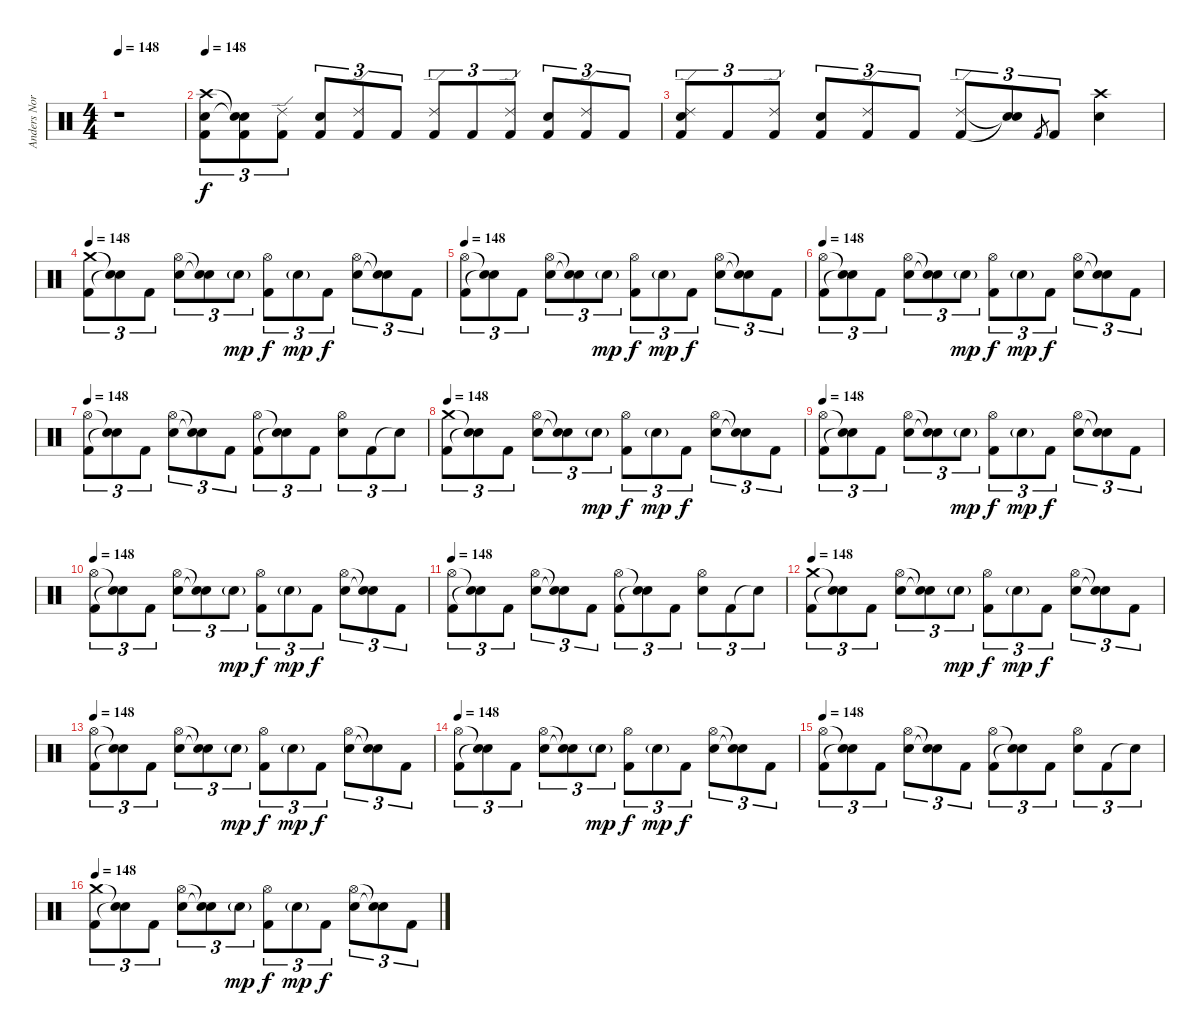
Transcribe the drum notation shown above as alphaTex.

\track ("Anders Nordin" "Anders Nor") {instrument percussion}
\staff {score}
\articulation defaults
\ts (4 4)
\tempo 148
\clef neutral
\ks c
r.1{dy mp} |
\tempo 148
("Kick (hit) 2" "Electric Snare (hit)" "Crash high (hit)").8{tu (3 2) dy f} ("Kick (hit) 2" "Snare (hit)"{t} "Snare (hit)"{t}).8{tu (3 2)} ("Kick (hit) 2" "Ride (edge) 2").8{tu (3 2)} ("Kick (hit) 2" "Electric Snare (hit)").8{tu (3 2)} ("Kick (hit) 2" "Ride (edge) 2").8{tu (3 2)} "Kick (hit) 2".8{tu (3 2)} ("Kick (hit) 2" "Ride (edge) 2").8{tu (3 2)} "Kick (hit) 2".8{tu (3 2)} ("Kick (hit) 2" "Ride (edge) 2").8{tu (3 2)} ("Kick (hit) 2" "Electric Snare (hit)").8{tu (3 2)} ("Kick (hit) 2" "Ride (edge) 2").8{tu (3 2)} "Kick (hit) 2".8{tu (3 2)} |
("Kick (hit) 2" "Electric Snare (hit)" "Ride (edge) 2").8{tu (3 2)} "Kick (hit) 2".8{tu (3 2)} ("Kick (hit) 2" "Ride (edge) 2").8{tu (3 2)} ("Kick (hit) 2" "Electric Snare (hit)").8{tu (3 2)} ("Kick (hit) 2" "Ride (edge) 2").8{tu (3 2)} "Kick (hit) 2".8{tu (3 2)} ("Kick (hit) 2" "Ride (edge) 2").8{tu (3 2)} ("Snare (hit)"{t} "Snare (hit)"{t}).8{tu (3 2)} "Kick (hit) 2".8{gr} "Kick (hit) 2".8{tu (3 2)} ("Electric Snare (hit)" "Crash high (hit)").4 |
\tempo 148
("Kick (hit) 2" "Crash medium (hit)").8{tu (3 2)} ("Snare (hit)"{t} "Snare (hit)"{t}).8{tu (3 2)} "Kick (hit) 2".8{tu (3 2)} ("Electric Snare (hit)" "Hi-Hat (open)").8{tu (3 2)} ("Snare (hit)"{t} "Snare (hit)"{t}).8{tu (3 2)} "Electric Snare (hit)"{g}.8{tu (3 2) dy mp} ("Kick (hit) 2" "Hi-Hat (open)").8{tu (3 2) dy f} "Electric Snare (hit)"{g}.8{tu (3 2) dy mp} "Kick (hit) 2".8{tu (3 2) dy f} ("Electric Snare (hit)" "Hi-Hat (open)").8{tu (3 2)} ("Snare (hit)"{t} "Snare (hit)"{t}).8{tu (3 2)} "Kick (hit) 2".8{tu (3 2)} |
\tempo 148
("Kick (hit) 2" "Hi-Hat (open)").8{tu (3 2)} ("Snare (hit)"{t} "Snare (hit)"{t}).8{tu (3 2)} "Kick (hit) 2".8{tu (3 2)} ("Electric Snare (hit)" "Hi-Hat (open)").8{tu (3 2)} ("Snare (hit)"{t} "Snare (hit)"{t}).8{tu (3 2)} "Electric Snare (hit)"{g}.8{tu (3 2) dy mp} ("Kick (hit) 2" "Hi-Hat (open)").8{tu (3 2) dy f} "Electric Snare (hit)"{g}.8{tu (3 2) dy mp} "Kick (hit) 2".8{tu (3 2) dy f} ("Electric Snare (hit)" "Hi-Hat (open)").8{tu (3 2)} ("Snare (hit)"{t} "Snare (hit)"{t}).8{tu (3 2)} "Kick (hit) 2".8{tu (3 2)} |
\tempo 148
("Kick (hit) 2" "Hi-Hat (open)").8{tu (3 2)} ("Snare (hit)"{t} "Snare (hit)"{t}).8{tu (3 2)} "Kick (hit) 2".8{tu (3 2)} ("Electric Snare (hit)" "Hi-Hat (open)").8{tu (3 2)} ("Snare (hit)"{t} "Snare (hit)"{t}).8{tu (3 2)} "Electric Snare (hit)"{g}.8{tu (3 2) dy mp} ("Kick (hit) 2" "Hi-Hat (open)").8{tu (3 2) dy f} "Electric Snare (hit)"{g}.8{tu (3 2) dy mp} "Kick (hit) 2".8{tu (3 2) dy f} ("Electric Snare (hit)" "Hi-Hat (open)").8{tu (3 2)} ("Snare (hit)"{t} "Snare (hit)"{t}).8{tu (3 2)} "Kick (hit) 2".8{tu (3 2)} |
\tempo 148
("Kick (hit) 2" "Hi-Hat (open)").8{tu (3 2)} ("Snare (hit)"{t} "Snare (hit)"{t}).8{tu (3 2)} "Kick (hit) 2".8{tu (3 2)} ("Electric Snare (hit)" "Hi-Hat (open)").8{tu (3 2)} ("Snare (hit)"{t} "Snare (hit)"{t}).8{tu (3 2)} "Kick (hit) 2".8{tu (3 2)} ("Kick (hit) 2" "Hi-Hat (open)").8{tu (3 2)} ("Snare (hit)"{t} "Snare (hit)"{t}).8{tu (3 2)} "Kick (hit) 2".8{tu (3 2)} ("Electric Snare (hit)" "Hi-Hat (open)").8{tu (3 2)} "Kick (hit) 2".8{tu (3 2)} "Snare (hit)"{t}.8{tu (3 2)} |
\tempo 148
("Kick (hit) 2" "Crash medium (hit)").8{tu (3 2)} ("Snare (hit)"{t} "Snare (hit)"{t}).8{tu (3 2)} "Kick (hit) 2".8{tu (3 2)} ("Electric Snare (hit)" "Hi-Hat (open)").8{tu (3 2)} ("Snare (hit)"{t} "Snare (hit)"{t}).8{tu (3 2)} "Electric Snare (hit)"{g}.8{tu (3 2) dy mp} ("Kick (hit) 2" "Hi-Hat (open)").8{tu (3 2) dy f} "Electric Snare (hit)"{g}.8{tu (3 2) dy mp} "Kick (hit) 2".8{tu (3 2) dy f} ("Electric Snare (hit)" "Hi-Hat (open)").8{tu (3 2)} ("Snare (hit)"{t} "Snare (hit)"{t}).8{tu (3 2)} "Kick (hit) 2".8{tu (3 2)} |
\tempo 148
("Kick (hit) 2" "Hi-Hat (open)").8{tu (3 2)} ("Snare (hit)"{t} "Snare (hit)"{t}).8{tu (3 2)} "Kick (hit) 2".8{tu (3 2)} ("Electric Snare (hit)" "Hi-Hat (open)").8{tu (3 2)} ("Snare (hit)"{t} "Snare (hit)"{t}).8{tu (3 2)} "Electric Snare (hit)"{g}.8{tu (3 2) dy mp} ("Kick (hit) 2" "Hi-Hat (open)").8{tu (3 2) dy f} "Electric Snare (hit)"{g}.8{tu (3 2) dy mp} "Kick (hit) 2".8{tu (3 2) dy f} ("Electric Snare (hit)" "Hi-Hat (open)").8{tu (3 2)} ("Snare (hit)"{t} "Snare (hit)"{t}).8{tu (3 2)} "Kick (hit) 2".8{tu (3 2)} |
\tempo 148
("Kick (hit) 2" "Hi-Hat (open)").8{tu (3 2)} ("Snare (hit)"{t} "Snare (hit)"{t}).8{tu (3 2)} "Kick (hit) 2".8{tu (3 2)} ("Electric Snare (hit)" "Hi-Hat (open)").8{tu (3 2)} ("Snare (hit)"{t} "Snare (hit)"{t}).8{tu (3 2)} "Electric Snare (hit)"{g}.8{tu (3 2) dy mp} ("Kick (hit) 2" "Hi-Hat (open)").8{tu (3 2) dy f} "Electric Snare (hit)"{g}.8{tu (3 2) dy mp} "Kick (hit) 2".8{tu (3 2) dy f} ("Electric Snare (hit)" "Hi-Hat (open)").8{tu (3 2)} ("Snare (hit)"{t} "Snare (hit)"{t}).8{tu (3 2)} "Kick (hit) 2".8{tu (3 2)} |
\tempo 148
("Kick (hit) 2" "Hi-Hat (open)").8{tu (3 2)} ("Snare (hit)"{t} "Snare (hit)"{t}).8{tu (3 2)} "Kick (hit) 2".8{tu (3 2)} ("Electric Snare (hit)" "Hi-Hat (open)").8{tu (3 2)} ("Snare (hit)"{t} "Snare (hit)"{t}).8{tu (3 2)} "Kick (hit) 2".8{tu (3 2)} ("Kick (hit) 2" "Hi-Hat (open)").8{tu (3 2)} ("Snare (hit)"{t} "Snare (hit)"{t}).8{tu (3 2)} "Kick (hit) 2".8{tu (3 2)} ("Electric Snare (hit)" "Hi-Hat (open)").8{tu (3 2)} "Kick (hit) 2".8{tu (3 2)} "Snare (hit)"{t}.8{tu (3 2)} |
\tempo 148
("Kick (hit) 2" "Crash medium (hit)").8{tu (3 2)} ("Snare (hit)"{t} "Snare (hit)"{t}).8{tu (3 2)} "Kick (hit) 2".8{tu (3 2)} ("Electric Snare (hit)" "Hi-Hat (open)").8{tu (3 2)} ("Snare (hit)"{t} "Snare (hit)"{t}).8{tu (3 2)} "Electric Snare (hit)"{g}.8{tu (3 2) dy mp} ("Kick (hit) 2" "Hi-Hat (open)").8{tu (3 2) dy f} "Electric Snare (hit)"{g}.8{tu (3 2) dy mp} "Kick (hit) 2".8{tu (3 2) dy f} ("Electric Snare (hit)" "Hi-Hat (open)").8{tu (3 2)} ("Snare (hit)"{t} "Snare (hit)"{t}).8{tu (3 2)} "Kick (hit) 2".8{tu (3 2)} |
\tempo 148
("Kick (hit) 2" "Hi-Hat (open)").8{tu (3 2)} ("Snare (hit)"{t} "Snare (hit)"{t}).8{tu (3 2)} "Kick (hit) 2".8{tu (3 2)} ("Electric Snare (hit)" "Hi-Hat (open)").8{tu (3 2)} ("Snare (hit)"{t} "Snare (hit)"{t}).8{tu (3 2)} "Electric Snare (hit)"{g}.8{tu (3 2) dy mp} ("Kick (hit) 2" "Hi-Hat (open)").8{tu (3 2) dy f} "Electric Snare (hit)"{g}.8{tu (3 2) dy mp} "Kick (hit) 2".8{tu (3 2) dy f} ("Electric Snare (hit)" "Hi-Hat (open)").8{tu (3 2)} ("Snare (hit)"{t} "Snare (hit)"{t}).8{tu (3 2)} "Kick (hit) 2".8{tu (3 2)} |
\tempo 148
("Kick (hit) 2" "Hi-Hat (open)").8{tu (3 2)} ("Snare (hit)"{t} "Snare (hit)"{t}).8{tu (3 2)} "Kick (hit) 2".8{tu (3 2)} ("Electric Snare (hit)" "Hi-Hat (open)").8{tu (3 2)} ("Snare (hit)"{t} "Snare (hit)"{t}).8{tu (3 2)} "Electric Snare (hit)"{g}.8{tu (3 2) dy mp} ("Kick (hit) 2" "Hi-Hat (open)").8{tu (3 2) dy f} "Electric Snare (hit)"{g}.8{tu (3 2) dy mp} "Kick (hit) 2".8{tu (3 2) dy f} ("Electric Snare (hit)" "Hi-Hat (open)").8{tu (3 2)} ("Snare (hit)"{t} "Snare (hit)"{t}).8{tu (3 2)} "Kick (hit) 2".8{tu (3 2)} |
\tempo 148
("Kick (hit) 2" "Hi-Hat (open)").8{tu (3 2)} ("Snare (hit)"{t} "Snare (hit)"{t}).8{tu (3 2)} "Kick (hit) 2".8{tu (3 2)} ("Electric Snare (hit)" "Hi-Hat (open)").8{tu (3 2)} ("Snare (hit)"{t} "Snare (hit)"{t}).8{tu (3 2)} "Kick (hit) 2".8{tu (3 2)} ("Kick (hit) 2" "Hi-Hat (open)").8{tu (3 2)} ("Snare (hit)"{t} "Snare (hit)"{t}).8{tu (3 2)} "Kick (hit) 2".8{tu (3 2)} ("Electric Snare (hit)" "Hi-Hat (open)").8{tu (3 2)} "Kick (hit) 2".8{tu (3 2)} "Snare (hit)"{t}.8{tu (3 2)} |
\tempo 148
("Kick (hit) 2" "Crash medium (hit)").8{tu (3 2)} ("Snare (hit)"{t} "Snare (hit)"{t}).8{tu (3 2)} "Kick (hit) 2".8{tu (3 2)} ("Electric Snare (hit)" "Hi-Hat (open)").8{tu (3 2)} ("Snare (hit)"{t} "Snare (hit)"{t}).8{tu (3 2)} "Electric Snare (hit)"{g}.8{tu (3 2) dy mp} ("Kick (hit) 2" "Hi-Hat (open)").8{tu (3 2) dy f} "Electric Snare (hit)"{g}.8{tu (3 2) dy mp} "Kick (hit) 2".8{tu (3 2) dy f} ("Electric Snare (hit)" "Hi-Hat (open)").8{tu (3 2)} ("Snare (hit)"{t} "Snare (hit)"{t}).8{tu (3 2)} "Kick (hit) 2".8{tu (3 2)}
